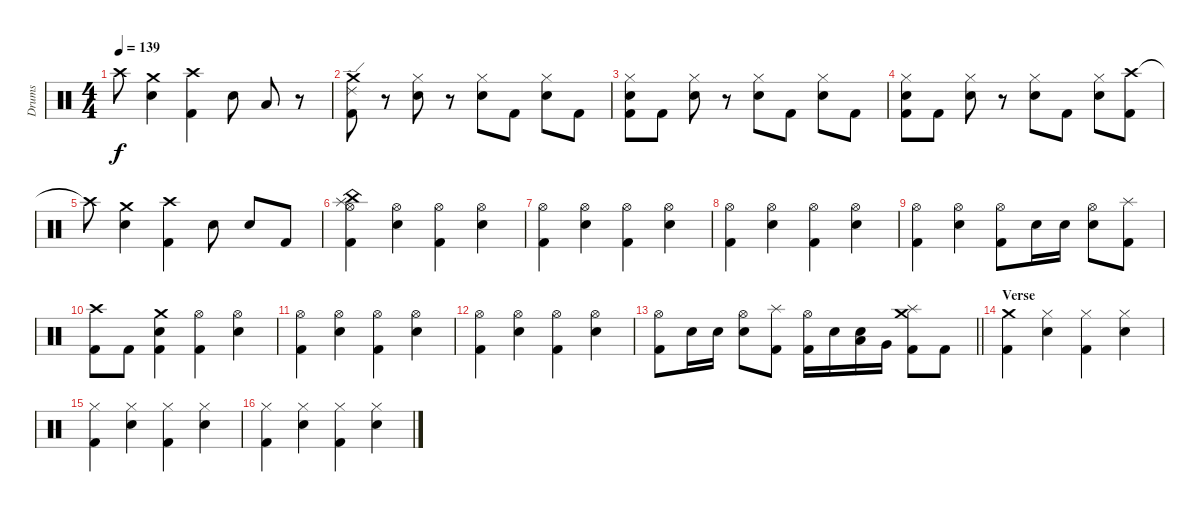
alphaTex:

\track ("Drums" "Drums") {instrument percussion}
\staff {score}
\articulation defaults
\ts (4 4)
\tempo 139
\clef neutral
\ks c "Crash high (hit)"{t}.8{dy f}
("Crash medium (hit)" "Hand Clap (hit)").4 ("Crash high (hit)" "Kick (hit) 2").4 "Electric Snare (hit)".8 "Low Tom (hit)".8 r.8 |
("Ride (edge) 2" "Crash medium (hit)" "Kick (hit) 2").8 r.8 ("Hi-Hat (closed)" "Electric Snare (hit)").8 r.8 ("Hi-Hat (closed)" "Electric Snare (hit)").8 "Kick (hit) 2".8 ("Hi-Hat (closed)" "Electric Snare (hit)").8 "Kick (hit) 2".8 |
("Hi-Hat (closed)" "Electric Snare (hit)" "Kick (hit) 2").8 "Kick (hit) 2".8 ("Hi-Hat (closed)" "Electric Snare (hit)").8 r.8 ("Hi-Hat (closed)" "Electric Snare (hit)").8 "Kick (hit) 2".8 ("Hi-Hat (closed)" "Electric Snare (hit)").8 "Kick (hit) 2".8 |
("Hi-Hat (closed)" "Electric Snare (hit)" "Kick (hit) 2").8 "Kick (hit) 2".8 ("Hi-Hat (closed)" "Electric Snare (hit)").8 r.8 ("Hi-Hat (closed)" "Electric Snare (hit)").8 "Kick (hit) 2".8 ("Hi-Hat (closed)" "Electric Snare (hit)").8 ("Crash high (hit)" "Kick (hit) 2").8 |
"Crash high (hit)"{t}.8 ("Crash medium (hit)" "Hand Clap (hit)").4 ("Crash high (hit)" "Kick (hit) 2").4 "Electric Snare (hit)".8 "Electric Snare (hit)".8 "Kick (hit) 2".8 |
("Hi-Hat (open)" "Splash (hit)" "China (hit)" "Kick (hit) 2").4 ("Hi-Hat (open)" "Electric Snare (hit)").4 ("Hi-Hat (open)" "Kick (hit) 2").4 ("Hi-Hat (open)" "Electric Snare (hit)").4 |
("Hi-Hat (open)" "Kick (hit) 2").4 ("Hi-Hat (open)" "Electric Snare (hit)").4 ("Hi-Hat (open)" "Kick (hit) 2").4 ("Hi-Hat (open)" "Electric Snare (hit)").4 |
("Hi-Hat (open)" "Kick (hit) 2").4 ("Hi-Hat (open)" "Electric Snare (hit)").4 ("Hi-Hat (open)" "Kick (hit) 2").4 ("Hi-Hat (open)" "Electric Snare (hit)").4 |
("Hi-Hat (open)" "Kick (hit) 2").4 ("Hi-Hat (open)" "Electric Snare (hit)").4 ("Hi-Hat (open)" "Kick (hit) 2").8 "Electric Snare (hit)".16 "Electric Snare (hit)".16 ("Hi-Hat (open)" "Electric Snare (hit)").8 ("Splash (hit)" "Kick (hit) 2").8 |
("Crash high (hit)" "Kick (hit) 2").8 "Kick (hit) 2".8 ("Crash medium (hit)" "Electric Snare (hit)" "Kick (hit) 2").4 ("Hi-Hat (open)" "Kick (hit) 2").4 ("Hi-Hat (open)" "Electric Snare (hit)").4 |
("Hi-Hat (open)" "Kick (hit) 2").4 ("Hi-Hat (open)" "Electric Snare (hit)").4 ("Hi-Hat (open)" "Kick (hit) 2").4 ("Hi-Hat (open)" "Electric Snare (hit)").4 |
("Hi-Hat (open)" "Kick (hit) 2").4 ("Hi-Hat (open)" "Electric Snare (hit)").4 ("Hi-Hat (open)" "Kick (hit) 2").4 ("Hi-Hat (open)" "Electric Snare (hit)").4 |
\barLineRight lightlight
("Hi-Hat (open)" "Kick (hit) 2").8 "Electric Snare (hit)".16 "Electric Snare (hit)".16 ("Hi-Hat (open)" "Electric Snare (hit)").8 ("Splash (hit)" "Kick (hit) 2").8 ("Hi-Hat (open)" "Kick (hit) 2").16 "Electric Snare (hit)".16 ("Electric Snare (hit)" "Low Tom (hit)").16 "Very Low Tom (hit)".16 ("Crash medium (hit)" "Splash (hit)" "Kick (hit) 2").8 "Kick (hit) 2".8 |
\section ("" "Verse")
("Crash medium (hit)" "Kick (hit) 2").4 ("Hi-Hat (closed)" "Electric Snare (hit)").4 ("Hi-Hat (closed)" "Kick (hit) 2").4 ("Hi-Hat (closed)" "Electric Snare (hit)").4 |
("Hi-Hat (closed)" "Kick (hit) 2").4 ("Hi-Hat (closed)" "Electric Snare (hit)").4 ("Hi-Hat (closed)" "Kick (hit) 2").4 ("Hi-Hat (closed)" "Electric Snare (hit)").4 |
("Hi-Hat (closed)" "Kick (hit) 2").4 ("Hi-Hat (closed)" "Electric Snare (hit)").4 ("Hi-Hat (closed)" "Kick (hit) 2").4 ("Hi-Hat (closed)" "Electric Snare (hit)").4
